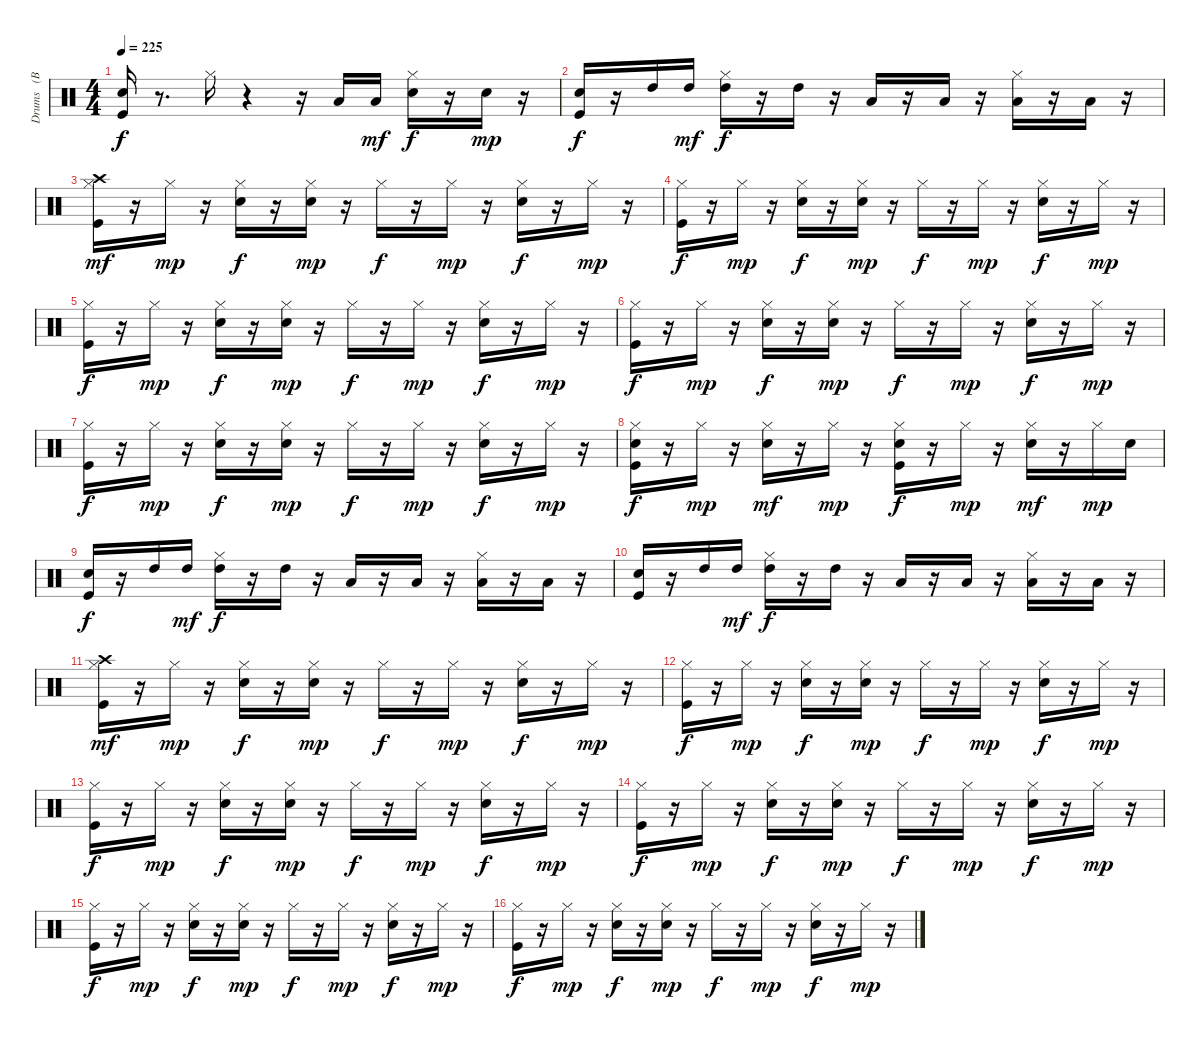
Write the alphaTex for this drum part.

\track ("Drums   (BB)" "Drums   (B") {instrument percussion}
\staff {score}
\articulation defaults
\ts (4 4)
\tempo 225
\clef neutral
\ks c
("Kick (hit)" "Snare (hit) 2").16{dy f} r.8{d} "Hi-Hat (closed)".16 r.4 r.16 "Low Tom (hit)".16 "Low Tom (hit)".16{dy mf} ("Snare (hit) 2" "Hi-Hat (closed)").16{dy f} r.16 "Snare (hit) 2".16{dy mp} r.16 |
("Kick (hit)" "Snare (hit) 2").16{dy f} r.16 "High Tom (hit)".16 "High Tom (hit)".16{dy mf} ("Hi-Hat (closed)" "High Tom (hit)").16{dy f} r.16 "High Tom (hit)".16 r.16 "Low Tom (hit)".16 r.16 "Low Tom (hit)".16 r.16 ("Hi-Hat (closed)" "Low Floor Tom (hit)").16 r.16 "Low Floor Tom (hit)".16 r.16 |
("Kick (hit)" "Hi-Hat (closed)" "Crash high (hit)").16{dy mf} r.16 "Hi-Hat (closed)".16{dy mp} r.16 ("Snare (hit) 2" "Hi-Hat (closed)").16{dy f} r.16 ("Snare (hit) 2" "Hi-Hat (closed)").16{dy mp} r.16 "Hi-Hat (closed)".16{dy f} r.16 "Hi-Hat (closed)".16{dy mp} r.16 ("Snare (hit) 2" "Hi-Hat (closed)").16{dy f} r.16 "Hi-Hat (closed)".16{dy mp} r.16 |
("Kick (hit)" "Hi-Hat (closed)").16{dy f} r.16 "Hi-Hat (closed)".16{dy mp} r.16 ("Snare (hit) 2" "Hi-Hat (closed)").16{dy f} r.16 ("Snare (hit) 2" "Hi-Hat (closed)").16{dy mp} r.16 "Hi-Hat (closed)".16{dy f} r.16 "Hi-Hat (closed)".16{dy mp} r.16 ("Snare (hit) 2" "Hi-Hat (closed)").16{dy f} r.16 "Hi-Hat (closed)".16{dy mp} r.16 |
("Kick (hit)" "Hi-Hat (closed)").16{dy f} r.16 "Hi-Hat (closed)".16{dy mp} r.16 ("Snare (hit) 2" "Hi-Hat (closed)").16{dy f} r.16 ("Snare (hit) 2" "Hi-Hat (closed)").16{dy mp} r.16 "Hi-Hat (closed)".16{dy f} r.16 "Hi-Hat (closed)".16{dy mp} r.16 ("Snare (hit) 2" "Hi-Hat (closed)").16{dy f} r.16 "Hi-Hat (closed)".16{dy mp} r.16 |
("Kick (hit)" "Hi-Hat (closed)").16{dy f} r.16 "Hi-Hat (closed)".16{dy mp} r.16 ("Snare (hit) 2" "Hi-Hat (closed)").16{dy f} r.16 ("Snare (hit) 2" "Hi-Hat (closed)").16{dy mp} r.16 "Hi-Hat (closed)".16{dy f} r.16 "Hi-Hat (closed)".16{dy mp} r.16 ("Snare (hit) 2" "Hi-Hat (closed)").16{dy f} r.16 "Hi-Hat (closed)".16{dy mp} r.16 |
("Kick (hit)" "Hi-Hat (closed)").16{dy f} r.16 "Hi-Hat (closed)".16{dy mp} r.16 ("Snare (hit) 2" "Hi-Hat (closed)").16{dy f} r.16 ("Snare (hit) 2" "Hi-Hat (closed)").16{dy mp} r.16 "Hi-Hat (closed)".16{dy f} r.16 "Hi-Hat (closed)".16{dy mp} r.16 ("Snare (hit) 2" "Hi-Hat (closed)").16{dy f} r.16 "Hi-Hat (closed)".16{dy mp} r.16 |
("Kick (hit)" "Snare (hit) 2" "Hi-Hat (closed)").16{dy f} r.16 "Hi-Hat (closed)".16{dy mp} r.16 ("Snare (hit) 2" "Hi-Hat (closed)").16{dy mf} r.16 "Hi-Hat (closed)".16{dy mp} r.16 ("Kick (hit)" "Snare (hit) 2" "Hi-Hat (closed)").16{dy f} r.16 "Hi-Hat (closed)".16{dy mp} r.16 ("Snare (hit) 2" "Hi-Hat (closed)").16{dy mf} r.16 "Hi-Hat (closed)".16{dy mp} "Snare (hit) 2".16 |
("Kick (hit)" "Snare (hit) 2").16{dy f} r.16 "High Tom (hit)".16 "High Tom (hit)".16{dy mf} ("Hi-Hat (closed)" "High Tom (hit)").16{dy f} r.16 "High Tom (hit)".16 r.16 "Low Tom (hit)".16 r.16 "Low Tom (hit)".16 r.16 ("Hi-Hat (closed)" "Low Floor Tom (hit)").16 r.16 "Low Floor Tom (hit)".16 r.16 |
("Kick (hit)" "Snare (hit) 2").16 r.16 "High Tom (hit)".16 "High Tom (hit)".16{dy mf} ("Hi-Hat (closed)" "High Tom (hit)").16{dy f} r.16 "High Tom (hit)".16 r.16 "Low Tom (hit)".16 r.16 "Low Tom (hit)".16 r.16 ("Hi-Hat (closed)" "Low Floor Tom (hit)").16 r.16 "Low Floor Tom (hit)".16 r.16 |
("Kick (hit)" "Hi-Hat (closed)" "Crash high (hit)").16{dy mf} r.16 "Hi-Hat (closed)".16{dy mp} r.16 ("Snare (hit) 2" "Hi-Hat (closed)").16{dy f} r.16 ("Snare (hit) 2" "Hi-Hat (closed)").16{dy mp} r.16 "Hi-Hat (closed)".16{dy f} r.16 "Hi-Hat (closed)".16{dy mp} r.16 ("Snare (hit) 2" "Hi-Hat (closed)").16{dy f} r.16 "Hi-Hat (closed)".16{dy mp} r.16 |
("Kick (hit)" "Hi-Hat (closed)").16{dy f} r.16 "Hi-Hat (closed)".16{dy mp} r.16 ("Snare (hit) 2" "Hi-Hat (closed)").16{dy f} r.16 ("Snare (hit) 2" "Hi-Hat (closed)").16{dy mp} r.16 "Hi-Hat (closed)".16{dy f} r.16 "Hi-Hat (closed)".16{dy mp} r.16 ("Snare (hit) 2" "Hi-Hat (closed)").16{dy f} r.16 "Hi-Hat (closed)".16{dy mp} r.16 |
("Kick (hit)" "Hi-Hat (closed)").16{dy f} r.16 "Hi-Hat (closed)".16{dy mp} r.16 ("Snare (hit) 2" "Hi-Hat (closed)").16{dy f} r.16 ("Snare (hit) 2" "Hi-Hat (closed)").16{dy mp} r.16 "Hi-Hat (closed)".16{dy f} r.16 "Hi-Hat (closed)".16{dy mp} r.16 ("Snare (hit) 2" "Hi-Hat (closed)").16{dy f} r.16 "Hi-Hat (closed)".16{dy mp} r.16 |
("Kick (hit)" "Hi-Hat (closed)").16{dy f} r.16 "Hi-Hat (closed)".16{dy mp} r.16 ("Snare (hit) 2" "Hi-Hat (closed)").16{dy f} r.16 ("Snare (hit) 2" "Hi-Hat (closed)").16{dy mp} r.16 "Hi-Hat (closed)".16{dy f} r.16 "Hi-Hat (closed)".16{dy mp} r.16 ("Snare (hit) 2" "Hi-Hat (closed)").16{dy f} r.16 "Hi-Hat (closed)".16{dy mp} r.16 |
("Kick (hit)" "Hi-Hat (closed)").16{dy f} r.16 "Hi-Hat (closed)".16{dy mp} r.16 ("Snare (hit) 2" "Hi-Hat (closed)").16{dy f} r.16 ("Snare (hit) 2" "Hi-Hat (closed)").16{dy mp} r.16 "Hi-Hat (closed)".16{dy f} r.16 "Hi-Hat (closed)".16{dy mp} r.16 ("Snare (hit) 2" "Hi-Hat (closed)").16{dy f} r.16 "Hi-Hat (closed)".16{dy mp} r.16 |
("Kick (hit)" "Hi-Hat (closed)").16{dy f} r.16 "Hi-Hat (closed)".16{dy mp} r.16 ("Snare (hit) 2" "Hi-Hat (closed)").16{dy f} r.16 ("Snare (hit) 2" "Hi-Hat (closed)").16{dy mp} r.16 "Hi-Hat (closed)".16{dy f} r.16 "Hi-Hat (closed)".16{dy mp} r.16 ("Snare (hit) 2" "Hi-Hat (closed)").16{dy f} r.16 "Hi-Hat (closed)".16{dy mp} r.16
